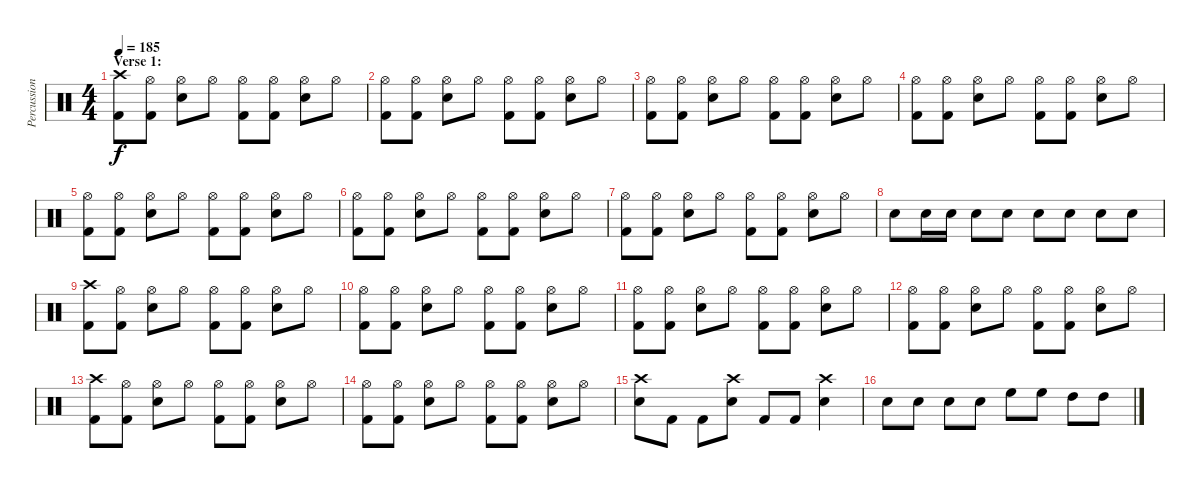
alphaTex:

\track ("Percussion" "Percussion") {instrument percussion}
\staff {score}
\articulation defaults
\ts (4 4)
\section ("" "Verse 1:")
\tempo 185
\clef neutral
\ks c
("Crash high (hit)" "Kick (hit) 2").8{dy f} ("Hi-Hat (open)" "Kick (hit) 2").8 ("Hi-Hat (open)" "Snare (hit) 2").8 "Hi-Hat (open)".8 ("Hi-Hat (open)" "Kick (hit) 2").8 ("Hi-Hat (open)" "Kick (hit) 2").8 ("Hi-Hat (open)" "Snare (hit) 2").8 "Hi-Hat (open)".8 |
("Hi-Hat (open)" "Kick (hit) 2").8 ("Hi-Hat (open)" "Kick (hit) 2").8 ("Hi-Hat (open)" "Snare (hit) 2").8 "Hi-Hat (open)".8 ("Hi-Hat (open)" "Kick (hit) 2").8 ("Hi-Hat (open)" "Kick (hit) 2").8 ("Hi-Hat (open)" "Snare (hit) 2").8 "Hi-Hat (open)".8 |
("Hi-Hat (open)" "Kick (hit) 2").8 ("Hi-Hat (open)" "Kick (hit) 2").8 ("Hi-Hat (open)" "Snare (hit) 2").8 "Hi-Hat (open)".8 ("Hi-Hat (open)" "Kick (hit) 2").8 ("Hi-Hat (open)" "Kick (hit) 2").8 ("Hi-Hat (open)" "Snare (hit) 2").8 "Hi-Hat (open)".8 |
("Hi-Hat (open)" "Kick (hit) 2").8 ("Hi-Hat (open)" "Kick (hit) 2").8 ("Hi-Hat (open)" "Snare (hit) 2").8 "Hi-Hat (open)".8 ("Hi-Hat (open)" "Kick (hit) 2").8 ("Hi-Hat (open)" "Kick (hit) 2").8 ("Hi-Hat (open)" "Snare (hit) 2").8 "Hi-Hat (open)".8 |
("Hi-Hat (open)" "Kick (hit) 2").8 ("Hi-Hat (open)" "Kick (hit) 2").8 ("Hi-Hat (open)" "Snare (hit) 2").8 "Hi-Hat (open)".8 ("Hi-Hat (open)" "Kick (hit) 2").8 ("Hi-Hat (open)" "Kick (hit) 2").8 ("Hi-Hat (open)" "Snare (hit) 2").8 "Hi-Hat (open)".8 |
("Hi-Hat (open)" "Kick (hit) 2").8 ("Hi-Hat (open)" "Kick (hit) 2").8 ("Hi-Hat (open)" "Snare (hit) 2").8 "Hi-Hat (open)".8 ("Hi-Hat (open)" "Kick (hit) 2").8 ("Hi-Hat (open)" "Kick (hit) 2").8 ("Hi-Hat (open)" "Snare (hit) 2").8 "Hi-Hat (open)".8 |
("Hi-Hat (open)" "Kick (hit) 2").8 ("Hi-Hat (open)" "Kick (hit) 2").8 ("Hi-Hat (open)" "Snare (hit) 2").8 "Hi-Hat (open)".8 ("Hi-Hat (open)" "Kick (hit) 2").8 ("Hi-Hat (open)" "Kick (hit) 2").8 ("Hi-Hat (open)" "Snare (hit) 2").8 "Hi-Hat (open)".8 |
"Snare (hit) 2".8 "Snare (hit) 2".16 "Snare (hit) 2".16 "Snare (hit) 2".8 "Snare (hit) 2".8 "Snare (hit) 2".8 "Snare (hit) 2".8 "Snare (hit) 2".8 "Snare (hit) 2".8 |
("Crash high (hit)" "Kick (hit) 2").8 ("Hi-Hat (open)" "Kick (hit) 2").8 ("Hi-Hat (open)" "Snare (hit) 2").8 "Hi-Hat (open)".8 ("Hi-Hat (open)" "Kick (hit) 2").8 ("Hi-Hat (open)" "Kick (hit) 2").8 ("Hi-Hat (open)" "Snare (hit) 2").8 "Hi-Hat (open)".8 |
("Hi-Hat (open)" "Kick (hit) 2").8 ("Hi-Hat (open)" "Kick (hit) 2").8 ("Hi-Hat (open)" "Snare (hit) 2").8 "Hi-Hat (open)".8 ("Hi-Hat (open)" "Kick (hit) 2").8 ("Hi-Hat (open)" "Kick (hit) 2").8 ("Hi-Hat (open)" "Snare (hit) 2").8 "Hi-Hat (open)".8 |
("Hi-Hat (open)" "Kick (hit) 2").8 ("Hi-Hat (open)" "Kick (hit) 2").8 ("Hi-Hat (open)" "Snare (hit) 2").8 "Hi-Hat (open)".8 ("Hi-Hat (open)" "Kick (hit) 2").8 ("Hi-Hat (open)" "Kick (hit) 2").8 ("Hi-Hat (open)" "Snare (hit) 2").8 "Hi-Hat (open)".8 |
("Hi-Hat (open)" "Kick (hit) 2").8 ("Hi-Hat (open)" "Kick (hit) 2").8 ("Hi-Hat (open)" "Snare (hit) 2").8 "Hi-Hat (open)".8 ("Hi-Hat (open)" "Kick (hit) 2").8 ("Hi-Hat (open)" "Kick (hit) 2").8 ("Hi-Hat (open)" "Snare (hit) 2").8 "Hi-Hat (open)".8 |
("Crash high (hit)" "Kick (hit) 2").8 ("Hi-Hat (open)" "Kick (hit) 2").8 ("Hi-Hat (open)" "Snare (hit) 2").8 "Hi-Hat (open)".8 ("Hi-Hat (open)" "Kick (hit) 2").8 ("Hi-Hat (open)" "Kick (hit) 2").8 ("Hi-Hat (open)" "Snare (hit) 2").8 "Hi-Hat (open)".8 |
("Hi-Hat (open)" "Kick (hit) 2").8 ("Hi-Hat (open)" "Kick (hit) 2").8 ("Hi-Hat (open)" "Snare (hit) 2").8 "Hi-Hat (open)".8 ("Hi-Hat (open)" "Kick (hit) 2").8 ("Hi-Hat (open)" "Kick (hit) 2").8 ("Hi-Hat (open)" "Snare (hit) 2").8 "Hi-Hat (open)".8 |
("Crash high (hit)" "Snare (hit) 2").8 "Kick (hit) 2".8 "Kick (hit) 2".8 ("Crash high (hit)" "Snare (hit) 2").8 "Kick (hit) 2".8 "Kick (hit) 2".8 ("Crash high (hit)" "Snare (hit) 2").4 |
"Snare (hit) 2".8 "Snare (hit) 2".8 "Snare (hit) 2".8 "Snare (hit) 2".8 "High Floor Tom (hit)".8 "High Floor Tom (hit)".8 "High Tom (hit)".8 "High Tom (hit)".8
